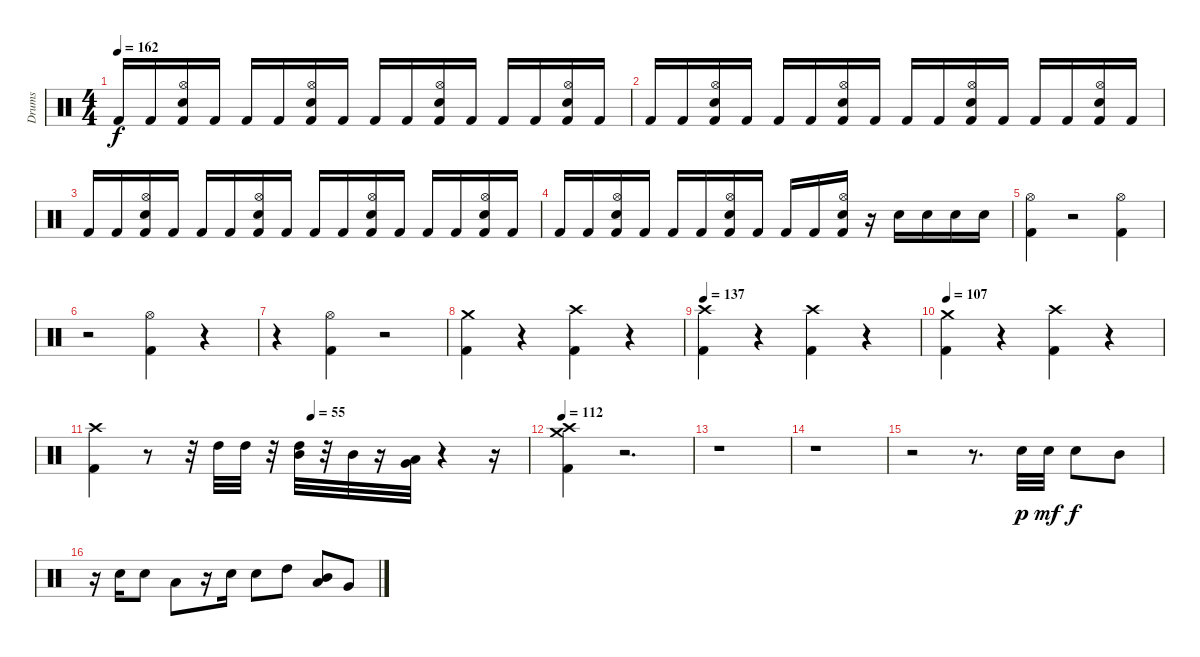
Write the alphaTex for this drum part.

\track ("Drums" "Drums") {instrument percussion}
\staff {score}
\articulation defaults
\ts (4 4)
\tempo 162
\clef neutral
\ks c "Kick (hit) 2".16{dy f} "Kick (hit) 2".16
("Hi-Hat (open)" "Electric Snare (hit)" "Kick (hit) 2").16 "Kick (hit) 2".16 "Kick (hit) 2".16 "Kick (hit) 2".16 ("Electric Snare (hit)" "Kick (hit) 2" "Hi-Hat (open)").16 "Kick (hit) 2".16 "Kick (hit) 2".16 "Kick (hit) 2".16 ("Electric Snare (hit)" "Kick (hit) 2" "Hi-Hat (open)").16 "Kick (hit) 2".16 "Kick (hit) 2".16 "Kick (hit) 2".16 ("Electric Snare (hit)" "Kick (hit) 2" "Hi-Hat (open)").16 "Kick (hit) 2".16 |
"Kick (hit) 2".16 "Kick (hit) 2".16 ("Hi-Hat (open)" "Kick (hit) 2" "Electric Snare (hit)").16 "Kick (hit) 2".16 "Kick (hit) 2".16 "Kick (hit) 2".16 ("Electric Snare (hit)" "Kick (hit) 2" "Hi-Hat (open)").16 "Kick (hit) 2".16 "Kick (hit) 2".16 "Kick (hit) 2".16 ("Electric Snare (hit)" "Kick (hit) 2" "Hi-Hat (open)").16 "Kick (hit) 2".16 "Kick (hit) 2".16 "Kick (hit) 2".16 ("Electric Snare (hit)" "Kick (hit) 2" "Hi-Hat (open)").16 "Kick (hit) 2".16 |
"Kick (hit) 2".16 "Kick (hit) 2".16 ("Hi-Hat (open)" "Kick (hit) 2" "Electric Snare (hit)").16 "Kick (hit) 2".16 "Kick (hit) 2".16 "Kick (hit) 2".16 ("Hi-Hat (open)" "Kick (hit) 2" "Electric Snare (hit)").16 "Kick (hit) 2".16 "Kick (hit) 2".16 "Kick (hit) 2".16 ("Hi-Hat (open)" "Electric Snare (hit)" "Kick (hit) 2").16 "Kick (hit) 2".16 "Kick (hit) 2".16 "Kick (hit) 2".16 ("Hi-Hat (open)" "Electric Snare (hit)" "Kick (hit) 2").16 "Kick (hit) 2".16 |
"Kick (hit) 2".16 "Kick (hit) 2".16 ("Electric Snare (hit)" "Kick (hit) 2" "Hi-Hat (open)").16 "Kick (hit) 2".16 "Kick (hit) 2".16 "Kick (hit) 2".16 ("Electric Snare (hit)" "Kick (hit) 2" "Hi-Hat (open)").16 "Kick (hit) 2".16 "Kick (hit) 2".16 "Kick (hit) 2".16 ("Hi-Hat (open)" "Electric Snare (hit)" "Kick (hit) 2").16 r.16 "Electric Snare (hit)".16 "Electric Snare (hit)".16 "Electric Snare (hit)".16 "Electric Snare (hit)".16 |
("Hi-Hat (open)" "Kick (hit) 2").4 r.2 ("Hi-Hat (open)" "Kick (hit) 2").4 |
r.2 ("Kick (hit) 2" "Hi-Hat (open)").4 r.4 |
r.4 ("Hi-Hat (open)" "Kick (hit) 2").4 r.2 |
("Kick (hit) 2" "Crash medium (hit)").4 r.4 ("Crash high (hit)" "Kick (hit) 2").4 r.4 |
\tempo 137
("Crash high (hit)" "Kick (hit) 2").4 r.4 ("Kick (hit) 2" "Crash high (hit)").4 r.4 |
\tempo 107
("Crash medium (hit)" "Kick (hit) 2").4 r.4 ("Kick (hit) 2" "Crash high (hit)").4 r.4 |
\tempo (55 0.5)
("Crash high (hit)" "Kick (hit) 2").4 r.8 r.32 "High Tom (hit)".32 "High Tom (hit)".32 r.32 ("Mid Tom (hit)" "High Tom (hit)").32 r.32 "Mid Tom (hit)".32 r.16 ("Very Low Tom (hit)" "Low Tom (hit)").32 r.4 r.16 |
\tempo 112
("Crash medium (hit)" "Kick (hit) 2" "Crash high (hit)").4 r.2{d} |
r.1 |
r.1 |
r.2 r.8{d} "Electric Snare (hit)".32{dy p} "Electric Snare (hit)".32{dy mf} "Electric Snare (hit)".8{dy f} "Mid Tom (hit)".8 |
r.16 "Electric Snare (hit)".16 "Electric Snare (hit)".8 "Low Tom (hit)".8 r.16 "Electric Snare (hit)".16 "Electric Snare (hit)".8 "High Tom (hit)".8 ("Low Tom (hit)" "Mid Tom (hit)").8 "Very Low Tom (hit)".8
